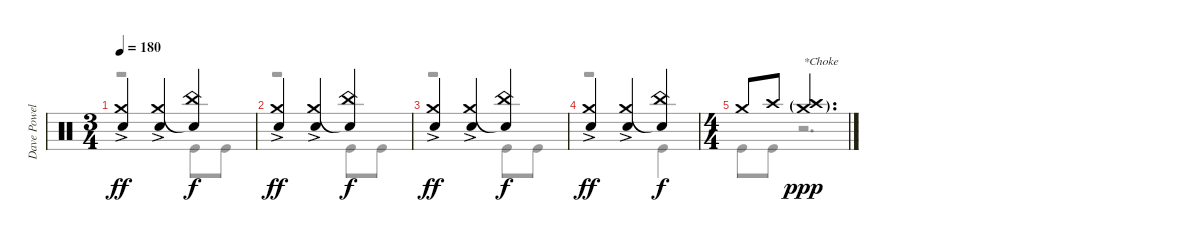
\track ("Dave Powell" "Dave Powel") {instrument percussion}
\staff {score}
\articulation defaults
\voice
\ts (3 4)
\tempo 180
\clef neutral
\ks c
("Crash medium (hit)"{ac} "Electric Snare (hit)").4{dy ff} ("Crash medium (hit)"{ac} "Electric Snare (hit)").4 ("Snare (hit)"{t} "China (hit)").4{dy f} |
("Crash medium (hit)"{ac} "Electric Snare (hit)").4{dy ff} ("Crash medium (hit)"{ac} "Electric Snare (hit)").4 ("Snare (hit)"{t} "China (hit)").4{dy f} |
("Crash medium (hit)"{ac} "Electric Snare (hit)").4{dy ff} ("Crash medium (hit)"{ac} "Electric Snare (hit)").4 ("Snare (hit)"{t} "China (hit)").4{dy f} |
("Crash medium (hit)"{ac} "Electric Snare (hit)").4{dy ff} ("Crash medium (hit)"{ac} "Electric Snare (hit)").4 ("Snare (hit)"{t} "China (hit)").4{dy f} |
\ts (4 4)
"Crash medium (hit)".8 "Crash high (hit)".8 ("Crash medium (hit)"{g} "Crash high (hit)"{g}).2{d txt "*Choke" dy ppp} |
|
|
\voice
\clef neutral
\ottava regular
\simile none
\ks c
r.2{dy f} "Kick (hit)".8 "Kick (hit)".8 |
r.2 "Kick (hit)".8 "Kick (hit)".8 |
r.2 "Kick (hit)".8 "Kick (hit)".8 |
r.2 "Kick (hit)".4 |
"Kick (hit)".8 "Kick (hit)".8 r.2{d} |
|
|
